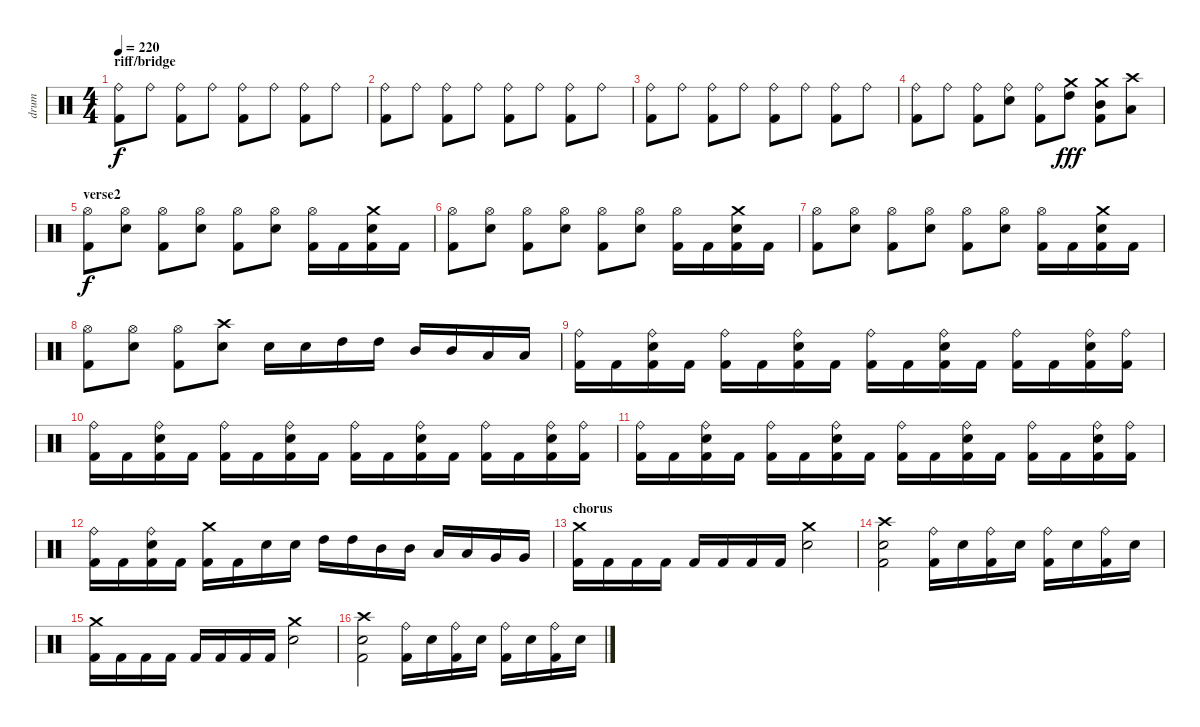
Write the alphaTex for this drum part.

\track ("drum" "drum") {instrument percussion}
\staff {score}
\articulation defaults
\ts (4 4)
\section ("" "riff/bridge")
\tempo 220
\clef neutral
\ks c
("Ride (bell)" "Kick (hit) 2").8{dy f} "Ride (bell)".8 ("Ride (bell)" "Kick (hit) 2").8 "Ride (bell)".8 ("Ride (bell)" "Kick (hit) 2").8 "Ride (bell)".8 ("Ride (bell)" "Kick (hit) 2").8 "Ride (bell)".8 |
("Ride (bell)" "Kick (hit) 2").8 "Ride (bell)".8 ("Ride (bell)" "Kick (hit) 2").8 "Ride (bell)".8 ("Ride (bell)" "Kick (hit) 2").8 "Ride (bell)".8 ("Ride (bell)" "Kick (hit) 2").8 "Ride (bell)".8 |
("Ride (bell)" "Kick (hit) 2").8 "Ride (bell)".8 ("Ride (bell)" "Kick (hit) 2").8 "Ride (bell)".8 ("Ride (bell)" "Kick (hit) 2").8 "Ride (bell)".8 ("Ride (bell)" "Kick (hit) 2").8 "Ride (bell)".8 |
("Ride (bell)" "Kick (hit) 2").8 "Ride (bell)".8 ("Ride (bell)" "Kick (hit) 2").8 ("Ride (bell)" "Electric Snare (hit)").8 ("Ride (bell)" "Kick (hit) 2").8 ("Crash medium (hit)" "High Tom (hit)").8{dy fff} ("Crash medium (hit)" "Mid Tom (hit)" "Kick (hit) 2").8 ("Crash high (hit)" "Low Tom (hit)").8 |
\section ("" "verse2")
("Hi-Hat (open)" "Kick (hit) 2").8{dy f} ("Hi-Hat (open)" "Electric Snare (hit)").8 ("Hi-Hat (open)" "Kick (hit) 2").8 ("Hi-Hat (open)" "Electric Snare (hit)").8 ("Hi-Hat (open)" "Kick (hit) 2").8 ("Hi-Hat (open)" "Electric Snare (hit)").8 ("Hi-Hat (open)" "Kick (hit) 2").16 "Kick (hit) 2".16 ("Crash medium (hit)" "Electric Snare (hit)" "Kick (hit) 2").16 "Kick (hit) 2".16 |
("Hi-Hat (open)" "Kick (hit) 2").8 ("Hi-Hat (open)" "Electric Snare (hit)").8 ("Hi-Hat (open)" "Kick (hit) 2").8 ("Hi-Hat (open)" "Electric Snare (hit)").8 ("Hi-Hat (open)" "Kick (hit) 2").8 ("Hi-Hat (open)" "Electric Snare (hit)").8 ("Hi-Hat (open)" "Kick (hit) 2").16 "Kick (hit) 2".16 ("Crash medium (hit)" "Electric Snare (hit)" "Kick (hit) 2").16 "Kick (hit) 2".16 |
("Hi-Hat (open)" "Kick (hit) 2").8 ("Hi-Hat (open)" "Electric Snare (hit)").8 ("Hi-Hat (open)" "Kick (hit) 2").8 ("Hi-Hat (open)" "Electric Snare (hit)").8 ("Hi-Hat (open)" "Kick (hit) 2").8 ("Hi-Hat (open)" "Electric Snare (hit)").8 ("Hi-Hat (open)" "Kick (hit) 2").16 "Kick (hit) 2".16 ("Crash medium (hit)" "Electric Snare (hit)" "Kick (hit) 2").16 "Kick (hit) 2".16 |
("Hi-Hat (open)" "Kick (hit) 2").8 ("Hi-Hat (open)" "Electric Snare (hit)").8 ("Hi-Hat (open)" "Kick (hit) 2").8 ("Crash high (hit)" "Electric Snare (hit)").8 "Electric Snare (hit)".16 "Electric Snare (hit)".16 "High Tom (hit)".16 "High Tom (hit)".16 "Mid Tom (hit)".16 "Mid Tom (hit)".16 "Low Tom (hit)".16 "Low Tom (hit)".16 |
("Ride (bell)" "Kick (hit) 2").16 "Kick (hit) 2".16 ("Ride (bell)" "Electric Snare (hit)" "Kick (hit) 2").16 "Kick (hit) 2".16 ("Ride (bell)" "Kick (hit) 2").16 "Kick (hit) 2".16 ("Ride (bell)" "Electric Snare (hit)" "Kick (hit) 2").16 "Kick (hit) 2".16 ("Ride (bell)" "Kick (hit) 2").16 "Kick (hit) 2".16 ("Ride (bell)" "Electric Snare (hit)" "Kick (hit) 2").16 "Kick (hit) 2".16 ("Ride (bell)" "Kick (hit) 2").16 "Kick (hit) 2".16 ("Ride (bell)" "Electric Snare (hit)" "Kick (hit) 2").16 ("Ride (bell)" "Kick (hit) 2").16 |
("Ride (bell)" "Kick (hit) 2").16 "Kick (hit) 2".16 ("Ride (bell)" "Electric Snare (hit)" "Kick (hit) 2").16 "Kick (hit) 2".16 ("Ride (bell)" "Kick (hit) 2").16 "Kick (hit) 2".16 ("Ride (bell)" "Electric Snare (hit)" "Kick (hit) 2").16 "Kick (hit) 2".16 ("Ride (bell)" "Kick (hit) 2").16 "Kick (hit) 2".16 ("Ride (bell)" "Electric Snare (hit)" "Kick (hit) 2").16 "Kick (hit) 2".16 ("Ride (bell)" "Kick (hit) 2").16 "Kick (hit) 2".16 ("Ride (bell)" "Electric Snare (hit)" "Kick (hit) 2").16 ("Ride (bell)" "Kick (hit) 2").16 |
("Ride (bell)" "Kick (hit) 2").16 "Kick (hit) 2".16 ("Ride (bell)" "Electric Snare (hit)" "Kick (hit) 2").16 "Kick (hit) 2".16 ("Ride (bell)" "Kick (hit) 2").16 "Kick (hit) 2".16 ("Ride (bell)" "Electric Snare (hit)" "Kick (hit) 2").16 "Kick (hit) 2".16 ("Ride (bell)" "Kick (hit) 2").16 "Kick (hit) 2".16 ("Ride (bell)" "Electric Snare (hit)" "Kick (hit) 2").16 "Kick (hit) 2".16 ("Ride (bell)" "Kick (hit) 2").16 "Kick (hit) 2".16 ("Ride (bell)" "Electric Snare (hit)" "Kick (hit) 2").16 ("Ride (bell)" "Kick (hit) 2").16 |
("Ride (bell)" "Kick (hit) 2").16 "Kick (hit) 2".16 ("Ride (bell)" "Electric Snare (hit)" "Kick (hit) 2").16 "Kick (hit) 2".16 ("Crash medium (hit)" "Kick (hit) 2").16 "Kick (hit) 2".16 "Electric Snare (hit)".16 "Electric Snare (hit)".16 "High Tom (hit)".16 "High Tom (hit)".16 "Mid Tom (hit)".16 "Mid Tom (hit)".16 "Low Tom (hit)".16 "Low Tom (hit)".16 "Very Low Tom (hit)".16 "Very Low Tom (hit)".16 |
\section ("" "chorus")
("Crash medium (hit)" "Kick (hit) 2").16 "Kick (hit) 2".16 "Kick (hit) 2".16 "Kick (hit) 2".16 "Kick (hit) 2".16 "Kick (hit) 2".16 "Kick (hit) 2".16 "Kick (hit) 2".16 ("Crash medium (hit)" "Electric Snare (hit)").2 |
("Crash high (hit)" "Electric Snare (hit)" "Kick (hit) 2").2 ("Ride (bell)" "Kick (hit) 2").16 "Electric Snare (hit)".16 ("Ride (bell)" "Kick (hit) 2").16 "Electric Snare (hit)".16 ("Ride (bell)" "Kick (hit) 2").16 "Electric Snare (hit)".16 ("Ride (bell)" "Kick (hit) 2").16 "Electric Snare (hit)".16 |
("Crash medium (hit)" "Kick (hit) 2").16 "Kick (hit) 2".16 "Kick (hit) 2".16 "Kick (hit) 2".16 "Kick (hit) 2".16 "Kick (hit) 2".16 "Kick (hit) 2".16 "Kick (hit) 2".16 ("Crash medium (hit)" "Electric Snare (hit)").2 |
("Crash high (hit)" "Electric Snare (hit)" "Kick (hit) 2").2 ("Ride (bell)" "Kick (hit) 2").16 "Electric Snare (hit)".16 ("Ride (bell)" "Kick (hit) 2").16 "Electric Snare (hit)".16 ("Ride (bell)" "Kick (hit) 2").16 "Electric Snare (hit)".16 ("Ride (bell)" "Kick (hit) 2").16 "Electric Snare (hit)".16
